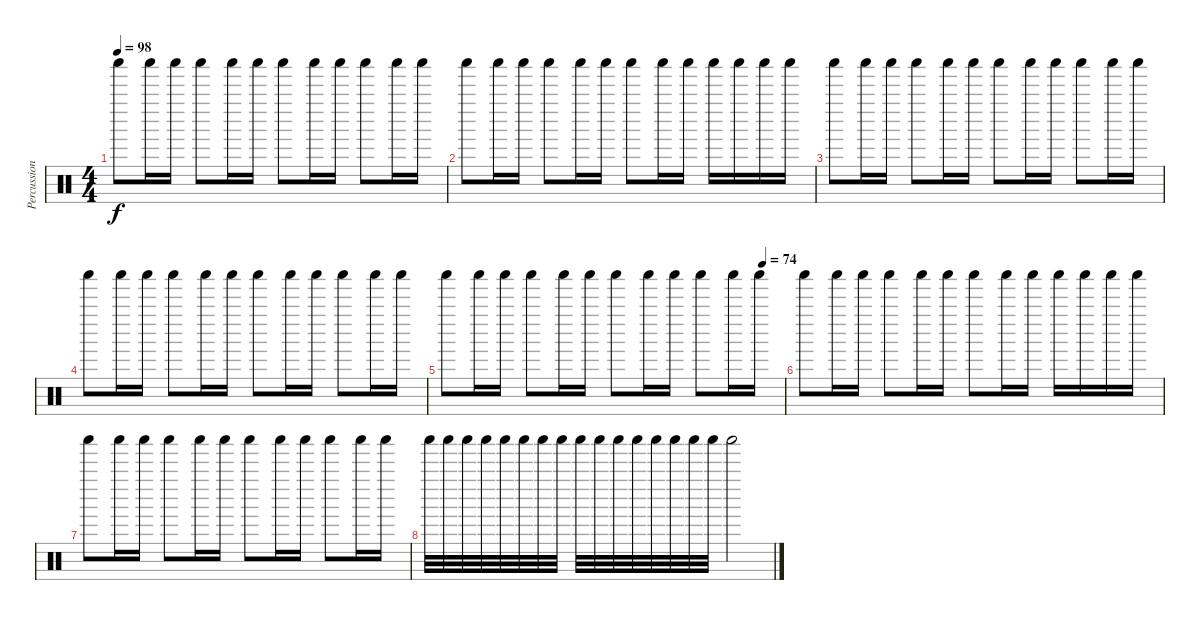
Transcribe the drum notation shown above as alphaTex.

\track ("Percussion" "Percussion") {instrument percussion}
\staff {score}
\articulation defaults
\ts (4 4)
\tempo 98
\clef neutral
\ks c "Shaker (hit)".8{dy f} "Shaker (hit)".16 "Shaker (hit)".16 "Shaker (hit)".8 "Shaker (hit)".16 "Shaker (hit)".16 "Shaker (hit)".8 "Shaker (hit)".16 "Shaker (hit)".16 "Shaker (hit)".8 "Shaker (hit)".16 "Shaker (hit)".16
|
"Shaker (hit)".8 "Shaker (hit)".16 "Shaker (hit)".16 "Shaker (hit)".8 "Shaker (hit)".16 "Shaker (hit)".16 "Shaker (hit)".8 "Shaker (hit)".16 "Shaker (hit)".16 "Shaker (hit)".16 "Shaker (hit)".16 "Shaker (hit)".16 "Shaker (hit)".16 |
"Shaker (hit)".8 "Shaker (hit)".16 "Shaker (hit)".16 "Shaker (hit)".8 "Shaker (hit)".16 "Shaker (hit)".16 "Shaker (hit)".8 "Shaker (hit)".16 "Shaker (hit)".16 "Shaker (hit)".8 "Shaker (hit)".16 "Shaker (hit)".16 |
"Shaker (hit)".8 "Shaker (hit)".16 "Shaker (hit)".16 "Shaker (hit)".8 "Shaker (hit)".16 "Shaker (hit)".16 "Shaker (hit)".8 "Shaker (hit)".16 "Shaker (hit)".16 "Shaker (hit)".8 "Shaker (hit)".16 "Shaker (hit)".16 |
\tempo (74 0.9375)
"Shaker (hit)".8 "Shaker (hit)".16 "Shaker (hit)".16 "Shaker (hit)".8 "Shaker (hit)".16 "Shaker (hit)".16 "Shaker (hit)".8 "Shaker (hit)".16 "Shaker (hit)".16 "Shaker (hit)".8 "Shaker (hit)".16 "Shaker (hit)".16 |
"Shaker (hit)".8 "Shaker (hit)".16 "Shaker (hit)".16 "Shaker (hit)".8 "Shaker (hit)".16 "Shaker (hit)".16 "Shaker (hit)".8 "Shaker (hit)".16 "Shaker (hit)".16 "Shaker (hit)".16 "Shaker (hit)".16 "Shaker (hit)".16 "Shaker (hit)".16 |
"Shaker (hit)".8 "Shaker (hit)".16 "Shaker (hit)".16 "Shaker (hit)".8 "Shaker (hit)".16 "Shaker (hit)".16 "Shaker (hit)".8 "Shaker (hit)".16 "Shaker (hit)".16 "Shaker (hit)".8 "Shaker (hit)".16 "Shaker (hit)".16 |
"Shaker (hit)".32 "Shaker (hit)".32 "Shaker (hit)".32 "Shaker (hit)".32 "Shaker (hit)".32 "Shaker (hit)".32 "Shaker (hit)".32 "Shaker (hit)".32 "Shaker (hit)".32 "Shaker (hit)".32 "Shaker (hit)".32 "Shaker (hit)".32 "Shaker (hit)".32 "Shaker (hit)".32 "Shaker (hit)".32 "Shaker (hit)".32 "Shaker (hit)".2
